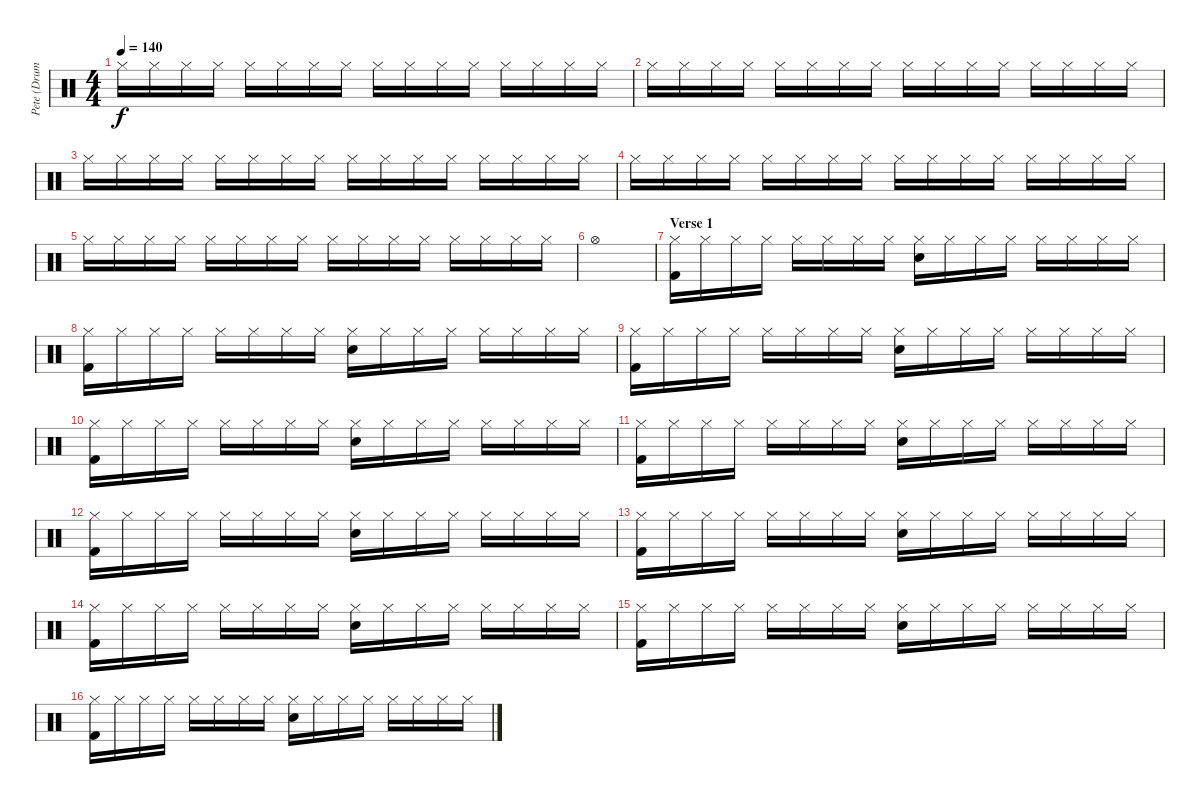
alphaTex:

\track ("Pete (Drums)" "Pete (Drum") {instrument percussion}
\staff {score}
\articulation defaults
\ts (4 4)
\tempo 140
\clef neutral
\ks c "Hi-Hat (closed)".16{dy f} "Hi-Hat (closed)".16 "Hi-Hat (closed)".16 "Hi-Hat (closed)".16 "Hi-Hat (closed)".16 "Hi-Hat (closed)".16 "Hi-Hat (closed)".16 "Hi-Hat (closed)".16 "Hi-Hat (closed)".16 "Hi-Hat (closed)".16 "Hi-Hat (closed)".16 "Hi-Hat (closed)".16 "Hi-Hat (closed)".16 "Hi-Hat (closed)".16 "Hi-Hat (closed)".16 "Hi-Hat (closed)".16
|
"Hi-Hat (closed)".16 "Hi-Hat (closed)".16 "Hi-Hat (closed)".16 "Hi-Hat (closed)".16 "Hi-Hat (closed)".16 "Hi-Hat (closed)".16 "Hi-Hat (closed)".16 "Hi-Hat (closed)".16 "Hi-Hat (closed)".16 "Hi-Hat (closed)".16 "Hi-Hat (closed)".16 "Hi-Hat (closed)".16 "Hi-Hat (closed)".16 "Hi-Hat (closed)".16 "Hi-Hat (closed)".16 "Hi-Hat (closed)".16 |
"Hi-Hat (closed)".16 "Hi-Hat (closed)".16 "Hi-Hat (closed)".16 "Hi-Hat (closed)".16 "Hi-Hat (closed)".16 "Hi-Hat (closed)".16 "Hi-Hat (closed)".16 "Hi-Hat (closed)".16 "Hi-Hat (closed)".16 "Hi-Hat (closed)".16 "Hi-Hat (closed)".16 "Hi-Hat (closed)".16 "Hi-Hat (closed)".16 "Hi-Hat (closed)".16 "Hi-Hat (closed)".16 "Hi-Hat (closed)".16 |
"Hi-Hat (closed)".16 "Hi-Hat (closed)".16 "Hi-Hat (closed)".16 "Hi-Hat (closed)".16 "Hi-Hat (closed)".16 "Hi-Hat (closed)".16 "Hi-Hat (closed)".16 "Hi-Hat (closed)".16 "Hi-Hat (closed)".16 "Hi-Hat (closed)".16 "Hi-Hat (closed)".16 "Hi-Hat (closed)".16 "Hi-Hat (closed)".16 "Hi-Hat (closed)".16 "Hi-Hat (closed)".16 "Hi-Hat (closed)".16 |
"Hi-Hat (closed)".16 "Hi-Hat (closed)".16 "Hi-Hat (closed)".16 "Hi-Hat (closed)".16 "Hi-Hat (closed)".16 "Hi-Hat (closed)".16 "Hi-Hat (closed)".16 "Hi-Hat (closed)".16 "Hi-Hat (closed)".16 "Hi-Hat (closed)".16 "Hi-Hat (closed)".16 "Hi-Hat (closed)".16 "Hi-Hat (closed)".16 "Hi-Hat (closed)".16 "Hi-Hat (closed)".16 "Hi-Hat (closed)".16 |
"Hi-Hat (open)".1 |
\section ("" "Verse 1")
("Hi-Hat (closed)" "Kick (hit) 2").16 "Hi-Hat (closed)".16 "Hi-Hat (closed)".16 "Hi-Hat (closed)".16 "Hi-Hat (closed)".16 "Hi-Hat (closed)".16 "Hi-Hat (closed)".16 "Hi-Hat (closed)".16 ("Hi-Hat (closed)" "Snare (hit) 2").16 "Hi-Hat (closed)".16 "Hi-Hat (closed)".16 "Hi-Hat (closed)".16 "Hi-Hat (closed)".16 "Hi-Hat (closed)".16 "Hi-Hat (closed)".16 "Hi-Hat (closed)".16 |
("Hi-Hat (closed)" "Kick (hit) 2").16 "Hi-Hat (closed)".16 "Hi-Hat (closed)".16 "Hi-Hat (closed)".16 "Hi-Hat (closed)".16 "Hi-Hat (closed)".16 "Hi-Hat (closed)".16 "Hi-Hat (closed)".16 ("Hi-Hat (closed)" "Snare (hit) 2").16 "Hi-Hat (closed)".16 "Hi-Hat (closed)".16 "Hi-Hat (closed)".16 "Hi-Hat (closed)".16 "Hi-Hat (closed)".16 "Hi-Hat (closed)".16 "Hi-Hat (closed)".16 |
("Hi-Hat (closed)" "Kick (hit) 2").16 "Hi-Hat (closed)".16 "Hi-Hat (closed)".16 "Hi-Hat (closed)".16 "Hi-Hat (closed)".16 "Hi-Hat (closed)".16 "Hi-Hat (closed)".16 "Hi-Hat (closed)".16 ("Hi-Hat (closed)" "Snare (hit) 2").16 "Hi-Hat (closed)".16 "Hi-Hat (closed)".16 "Hi-Hat (closed)".16 "Hi-Hat (closed)".16 "Hi-Hat (closed)".16 "Hi-Hat (closed)".16 "Hi-Hat (closed)".16 |
("Hi-Hat (closed)" "Kick (hit) 2").16 "Hi-Hat (closed)".16 "Hi-Hat (closed)".16 "Hi-Hat (closed)".16 "Hi-Hat (closed)".16 "Hi-Hat (closed)".16 "Hi-Hat (closed)".16 "Hi-Hat (closed)".16 ("Hi-Hat (closed)" "Snare (hit) 2").16 "Hi-Hat (closed)".16 "Hi-Hat (closed)".16 "Hi-Hat (closed)".16 "Hi-Hat (closed)".16 "Hi-Hat (closed)".16 "Hi-Hat (closed)".16 "Hi-Hat (closed)".16 |
("Hi-Hat (closed)" "Kick (hit) 2").16 "Hi-Hat (closed)".16 "Hi-Hat (closed)".16 "Hi-Hat (closed)".16 "Hi-Hat (closed)".16 "Hi-Hat (closed)".16 "Hi-Hat (closed)".16 "Hi-Hat (closed)".16 ("Hi-Hat (closed)" "Snare (hit) 2").16 "Hi-Hat (closed)".16 "Hi-Hat (closed)".16 "Hi-Hat (closed)".16 "Hi-Hat (closed)".16 "Hi-Hat (closed)".16 "Hi-Hat (closed)".16 "Hi-Hat (closed)".16 |
("Hi-Hat (closed)" "Kick (hit) 2").16 "Hi-Hat (closed)".16 "Hi-Hat (closed)".16 "Hi-Hat (closed)".16 "Hi-Hat (closed)".16 "Hi-Hat (closed)".16 "Hi-Hat (closed)".16 "Hi-Hat (closed)".16 ("Hi-Hat (closed)" "Snare (hit) 2").16 "Hi-Hat (closed)".16 "Hi-Hat (closed)".16 "Hi-Hat (closed)".16 "Hi-Hat (closed)".16 "Hi-Hat (closed)".16 "Hi-Hat (closed)".16 "Hi-Hat (closed)".16 |
("Hi-Hat (closed)" "Kick (hit) 2").16 "Hi-Hat (closed)".16 "Hi-Hat (closed)".16 "Hi-Hat (closed)".16 "Hi-Hat (closed)".16 "Hi-Hat (closed)".16 "Hi-Hat (closed)".16 "Hi-Hat (closed)".16 ("Hi-Hat (closed)" "Snare (hit) 2").16 "Hi-Hat (closed)".16 "Hi-Hat (closed)".16 "Hi-Hat (closed)".16 "Hi-Hat (closed)".16 "Hi-Hat (closed)".16 "Hi-Hat (closed)".16 "Hi-Hat (closed)".16 |
("Hi-Hat (closed)" "Kick (hit) 2").16 "Hi-Hat (closed)".16 "Hi-Hat (closed)".16 "Hi-Hat (closed)".16 "Hi-Hat (closed)".16 "Hi-Hat (closed)".16 "Hi-Hat (closed)".16 "Hi-Hat (closed)".16 ("Hi-Hat (closed)" "Snare (hit) 2").16 "Hi-Hat (closed)".16 "Hi-Hat (closed)".16 "Hi-Hat (closed)".16 "Hi-Hat (closed)".16 "Hi-Hat (closed)".16 "Hi-Hat (closed)".16 "Hi-Hat (closed)".16 |
("Hi-Hat (closed)" "Kick (hit) 2").16 "Hi-Hat (closed)".16 "Hi-Hat (closed)".16 "Hi-Hat (closed)".16 "Hi-Hat (closed)".16 "Hi-Hat (closed)".16 "Hi-Hat (closed)".16 "Hi-Hat (closed)".16 ("Hi-Hat (closed)" "Snare (hit) 2").16 "Hi-Hat (closed)".16 "Hi-Hat (closed)".16 "Hi-Hat (closed)".16 "Hi-Hat (closed)".16 "Hi-Hat (closed)".16 "Hi-Hat (closed)".16 "Hi-Hat (closed)".16 |
("Hi-Hat (closed)" "Kick (hit) 2").16 "Hi-Hat (closed)".16 "Hi-Hat (closed)".16 "Hi-Hat (closed)".16 "Hi-Hat (closed)".16 "Hi-Hat (closed)".16 "Hi-Hat (closed)".16 "Hi-Hat (closed)".16 ("Hi-Hat (closed)" "Snare (hit) 2").16 "Hi-Hat (closed)".16 "Hi-Hat (closed)".16 "Hi-Hat (closed)".16 "Hi-Hat (closed)".16 "Hi-Hat (closed)".16 "Hi-Hat (closed)".16 "Hi-Hat (closed)".16
